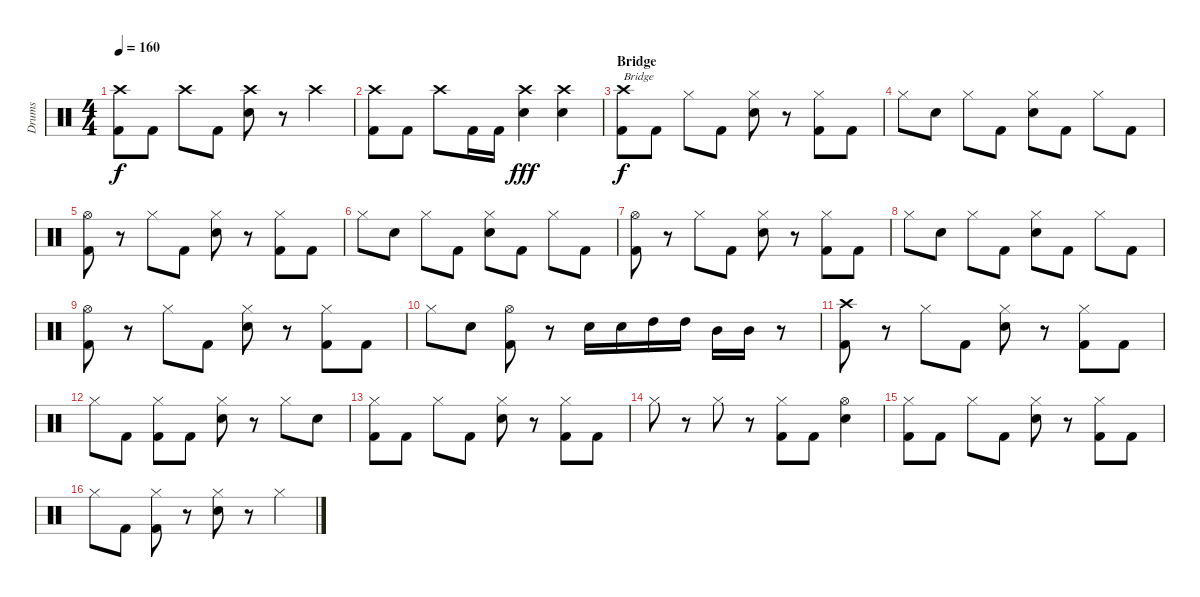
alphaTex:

\track ("Drums" "Drums") {instrument percussion}
\staff {score}
\articulation defaults
\ts (4 4)
\tempo 160
\clef neutral
\ks c
("Crash high (hit)" "Kick (hit) 2").8{dy f} "Kick (hit) 2".8 "Crash high (hit)".8 "Kick (hit) 2".8 ("Crash high (hit)" "Electric Snare (hit)").8 r.8 "Crash high (hit)".4 |
("Crash high (hit)" "Kick (hit) 2").8 "Kick (hit) 2".8 "Crash high (hit)".8 "Kick (hit) 2".16 "Kick (hit) 2".16 ("Crash high (hit)" "Electric Snare (hit)").4{dy fff} ("Crash high (hit)" "Electric Snare (hit)").4 |
\section ("" "Bridge")
("Crash high (hit)" "Kick (hit) 2").8{txt "Bridge" dy f} "Kick (hit) 2".8 "Hi-Hat (closed)".8 "Kick (hit) 2".8 ("Hi-Hat (closed)" "Electric Snare (hit)").8 r.8 ("Hi-Hat (closed)" "Kick (hit) 2").8 "Kick (hit) 2".8 |
"Hi-Hat (closed)".8 "Electric Snare (hit)".8 "Hi-Hat (closed)".8 "Kick (hit) 2".8 ("Hi-Hat (closed)" "Electric Snare (hit)").8 "Kick (hit) 2".8 "Hi-Hat (closed)".8 "Kick (hit) 2".8 |
("Hi-Hat (open)" "Kick (hit) 2").8 r.8 "Hi-Hat (closed)".8 "Kick (hit) 2".8 ("Hi-Hat (closed)" "Electric Snare (hit)").8 r.8 ("Hi-Hat (closed)" "Kick (hit) 2").8 "Kick (hit) 2".8 |
"Hi-Hat (closed)".8 "Electric Snare (hit)".8 "Hi-Hat (closed)".8 "Kick (hit) 2".8 ("Hi-Hat (closed)" "Electric Snare (hit)").8 "Kick (hit) 2".8 "Hi-Hat (closed)".8 "Kick (hit) 2".8 |
("Hi-Hat (open)" "Kick (hit) 2").8 r.8 "Hi-Hat (closed)".8 "Kick (hit) 2".8 ("Hi-Hat (closed)" "Electric Snare (hit)").8 r.8 ("Hi-Hat (closed)" "Kick (hit) 2").8 "Kick (hit) 2".8 |
"Hi-Hat (closed)".8 "Electric Snare (hit)".8 "Hi-Hat (closed)".8 "Kick (hit) 2".8 ("Hi-Hat (closed)" "Electric Snare (hit)").8 "Kick (hit) 2".8 "Hi-Hat (closed)".8 "Kick (hit) 2".8 |
("Hi-Hat (open)" "Kick (hit) 2").8 r.8 "Hi-Hat (closed)".8 "Kick (hit) 2".8 ("Hi-Hat (closed)" "Electric Snare (hit)").8 r.8 ("Hi-Hat (closed)" "Kick (hit) 2").8 "Kick (hit) 2".8 |
"Hi-Hat (closed)".8 "Electric Snare (hit)".8 ("Hi-Hat (open)" "Kick (hit) 2").8 r.8 "Electric Snare (hit)".16 "Electric Snare (hit)".16 "High Tom (hit)".16 "High Tom (hit)".16 "Mid Tom (hit)".16 "Mid Tom (hit)".16 r.8 |
("Crash high (hit)" "Kick (hit) 2").8 r.8 "Hi-Hat (closed)".8 "Kick (hit) 2".8 ("Hi-Hat (closed)" "Electric Snare (hit)").8 r.8 ("Hi-Hat (closed)" "Kick (hit) 2").8 "Kick (hit) 2".8 |
"Hi-Hat (closed)".8 "Kick (hit) 2".8 ("Hi-Hat (closed)" "Kick (hit) 2").8 "Kick (hit) 2".8 ("Hi-Hat (closed)" "Electric Snare (hit)").8 r.8 "Hi-Hat (closed)".8 "Electric Snare (hit)".8 |
("Hi-Hat (closed)" "Kick (hit) 2").8 "Kick (hit) 2".8 "Hi-Hat (closed)".8 "Kick (hit) 2".8 ("Hi-Hat (closed)" "Electric Snare (hit)").8 r.8 ("Hi-Hat (closed)" "Kick (hit) 2").8 "Kick (hit) 2".8 |
"Hi-Hat (closed)".8 r.8 "Hi-Hat (closed)".8 r.8 ("Hi-Hat (closed)" "Kick (hit) 2").8 "Kick (hit) 2".8 ("Hi-Hat (open)" "Electric Snare (hit)").4 |
("Hi-Hat (closed)" "Kick (hit) 2").8 "Kick (hit) 2".8 "Hi-Hat (closed)".8 "Kick (hit) 2".8 ("Hi-Hat (closed)" "Electric Snare (hit)").8 r.8 ("Hi-Hat (closed)" "Kick (hit) 2").8 "Kick (hit) 2".8 |
"Hi-Hat (closed)".8 "Kick (hit) 2".8 ("Hi-Hat (closed)" "Kick (hit) 2").8 r.8 ("Hi-Hat (closed)" "Electric Snare (hit)").8 r.8 "Hi-Hat (closed)".4
